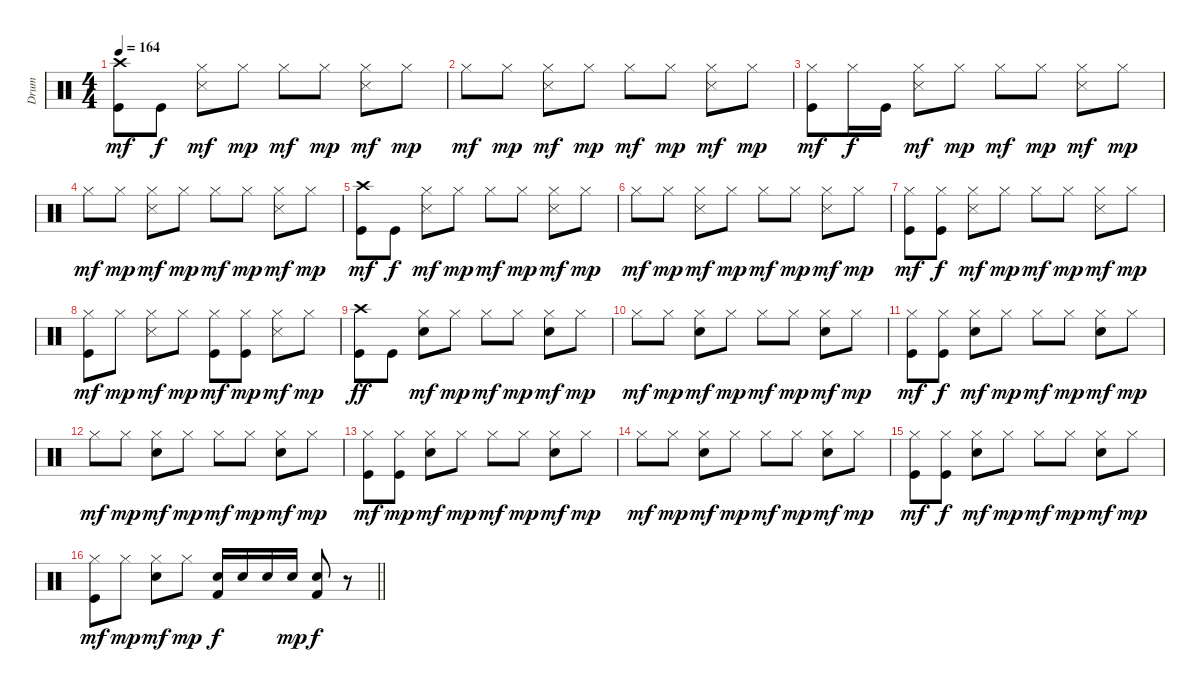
\track ("Drum" "Drum") {instrument percussion}
\staff {score}
\articulation defaults
\ts (4 4)
\tempo 164
\clef neutral
\ks c
("Crash high (hit)" "Kick (hit)").8{dy mf} "Kick (hit)".8{dy f} ("Snare (side stick) 3" "Hi-Hat (closed)").8{dy mf} "Hi-Hat (closed)".8{dy mp} "Hi-Hat (closed)".8{dy mf} "Hi-Hat (closed)".8{dy mp} ("Snare (side stick) 3" "Hi-Hat (closed)").8{dy mf} "Hi-Hat (closed)".8{dy mp} |
"Hi-Hat (closed)".8{dy mf} "Hi-Hat (closed)".8{dy mp} ("Snare (side stick) 3" "Hi-Hat (closed)").8{dy mf} "Hi-Hat (closed)".8{dy mp} "Hi-Hat (closed)".8{dy mf} "Hi-Hat (closed)".8{dy mp} ("Snare (side stick) 3" "Hi-Hat (closed)").8{dy mf} "Hi-Hat (closed)".8{dy mp} |
("Hi-Hat (closed)" "Kick (hit)").8{dy mf} "Hi-Hat (closed)".16{dy f} "Kick (hit)".16 ("Snare (side stick) 3" "Hi-Hat (closed)").8{dy mf} "Hi-Hat (closed)".8{dy mp} "Hi-Hat (closed)".8{dy mf} "Hi-Hat (closed)".8{dy mp} ("Snare (side stick) 3" "Hi-Hat (closed)").8{dy mf} "Hi-Hat (closed)".8{dy mp} |
"Hi-Hat (closed)".8{dy mf} "Hi-Hat (closed)".8{dy mp} ("Snare (side stick) 3" "Hi-Hat (closed)").8{dy mf} "Hi-Hat (closed)".8{dy mp} "Hi-Hat (closed)".8{dy mf} "Hi-Hat (closed)".8{dy mp} ("Snare (side stick) 3" "Hi-Hat (closed)").8{dy mf} "Hi-Hat (closed)".8{dy mp} |
("Crash high (hit)" "Kick (hit)").8{dy mf} "Kick (hit)".8{dy f} ("Snare (side stick) 3" "Hi-Hat (closed)").8{dy mf} "Hi-Hat (closed)".8{dy mp} "Hi-Hat (closed)".8{dy mf} "Hi-Hat (closed)".8{dy mp} ("Snare (side stick) 3" "Hi-Hat (closed)").8{dy mf} "Hi-Hat (closed)".8{dy mp} |
"Hi-Hat (closed)".8{dy mf} "Hi-Hat (closed)".8{dy mp} ("Snare (side stick) 3" "Hi-Hat (closed)").8{dy mf} "Hi-Hat (closed)".8{dy mp} "Hi-Hat (closed)".8{dy mf} "Hi-Hat (closed)".8{dy mp} ("Snare (side stick) 3" "Hi-Hat (closed)").8{dy mf} "Hi-Hat (closed)".8{dy mp} |
("Hi-Hat (closed)" "Kick (hit)").8{dy mf} ("Hi-Hat (closed)" "Kick (hit)").8{dy f} ("Snare (side stick) 3" "Hi-Hat (closed)").8{dy mf} "Hi-Hat (closed)".8{dy mp} "Hi-Hat (closed)".8{dy mf} "Hi-Hat (closed)".8{dy mp} ("Snare (side stick) 3" "Hi-Hat (closed)").8{dy mf} "Hi-Hat (closed)".8{dy mp} |
("Hi-Hat (closed)" "Kick (hit)").8{dy mf} "Hi-Hat (closed)".8{dy mp} ("Snare (side stick) 3" "Hi-Hat (closed)").8{dy mf} "Hi-Hat (closed)".8{dy mp} ("Hi-Hat (closed)" "Kick (hit)").8{dy mf} ("Hi-Hat (closed)" "Kick (hit)").8{dy mp} ("Snare (side stick) 3" "Hi-Hat (closed)").8{dy mf} "Hi-Hat (closed)".8{dy mp} |
("Crash high (hit)" "Kick (hit)").8{dy ff} "Kick (hit)".8 ("Electric Snare (hit)" "Hi-Hat (closed)").8{dy mf} "Hi-Hat (closed)".8{dy mp} "Hi-Hat (closed)".8{dy mf} "Hi-Hat (closed)".8{dy mp} ("Electric Snare (hit)" "Hi-Hat (closed)").8{dy mf} "Hi-Hat (closed)".8{dy mp} |
"Hi-Hat (closed)".8{dy mf} "Hi-Hat (closed)".8{dy mp} ("Electric Snare (hit)" "Hi-Hat (closed)").8{dy mf} "Hi-Hat (closed)".8{dy mp} "Hi-Hat (closed)".8{dy mf} "Hi-Hat (closed)".8{dy mp} ("Electric Snare (hit)" "Hi-Hat (closed)").8{dy mf} "Hi-Hat (closed)".8{dy mp} |
("Hi-Hat (closed)" "Kick (hit)").8{dy mf} ("Hi-Hat (closed)" "Kick (hit)").8{dy f} ("Electric Snare (hit)" "Hi-Hat (closed)").8{dy mf} "Hi-Hat (closed)".8{dy mp} "Hi-Hat (closed)".8{dy mf} "Hi-Hat (closed)".8{dy mp} ("Electric Snare (hit)" "Hi-Hat (closed)").8{dy mf} "Hi-Hat (closed)".8{dy mp} |
"Hi-Hat (closed)".8{dy mf} "Hi-Hat (closed)".8{dy mp} ("Electric Snare (hit)" "Hi-Hat (closed)").8{dy mf} "Hi-Hat (closed)".8{dy mp} "Hi-Hat (closed)".8{dy mf} "Hi-Hat (closed)".8{dy mp} ("Electric Snare (hit)" "Hi-Hat (closed)").8{dy mf} "Hi-Hat (closed)".8{dy mp} |
("Hi-Hat (closed)" "Kick (hit)").8{dy mf} ("Hi-Hat (closed)" "Kick (hit)").8{dy mp} ("Electric Snare (hit)" "Hi-Hat (closed)").8{dy mf} "Hi-Hat (closed)".8{dy mp} "Hi-Hat (closed)".8{dy mf} "Hi-Hat (closed)".8{dy mp} ("Electric Snare (hit)" "Hi-Hat (closed)").8{dy mf} "Hi-Hat (closed)".8{dy mp} |
"Hi-Hat (closed)".8{dy mf} "Hi-Hat (closed)".8{dy mp} ("Electric Snare (hit)" "Hi-Hat (closed)").8{dy mf} "Hi-Hat (closed)".8{dy mp} "Hi-Hat (closed)".8{dy mf} "Hi-Hat (closed)".8{dy mp} ("Electric Snare (hit)" "Hi-Hat (closed)").8{dy mf} "Hi-Hat (closed)".8{dy mp} |
("Hi-Hat (closed)" "Kick (hit)").8{dy mf} ("Hi-Hat (closed)" "Kick (hit)").8{dy f} ("Electric Snare (hit)" "Hi-Hat (closed)").8{dy mf} "Hi-Hat (closed)".8{dy mp} "Hi-Hat (closed)".8{dy mf} "Hi-Hat (closed)".8{dy mp} ("Electric Snare (hit)" "Hi-Hat (closed)").8{dy mf} "Hi-Hat (closed)".8{dy mp} |
\barLineRight lightlight
("Hi-Hat (closed)" "Kick (hit)").8{dy mf} "Hi-Hat (closed)".8{dy mp} ("Electric Snare (hit)" "Hi-Hat (closed)").8{dy mf} "Hi-Hat (closed)".8{dy mp} ("Electric Snare (hit)" "Kick (hit) 2").16{dy f} "Electric Snare (hit)".16 "Electric Snare (hit)".16 "Electric Snare (hit)".16{dy mp} ("Electric Snare (hit)" "Kick (hit) 2").8{dy f} r.8
